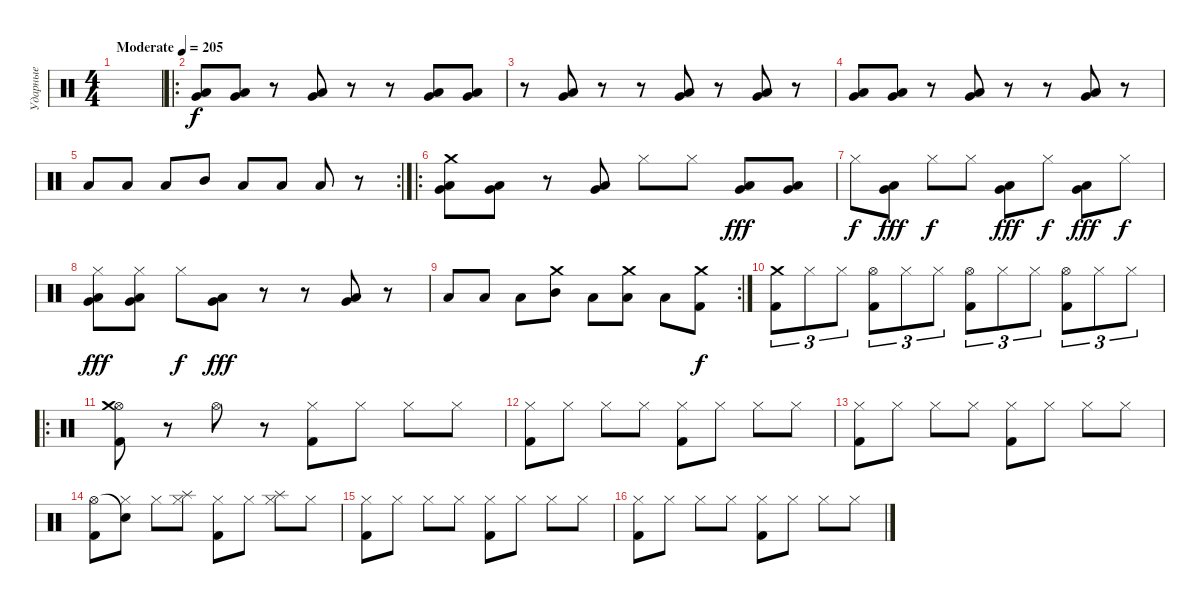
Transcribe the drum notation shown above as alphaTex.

\track ("Ударные" "Ударные") {instrument percussion}
\staff {score}
\articulation defaults
\ts (4 4)
\tempo (205 "Moderate")
\clef neutral
\ks c
|
\ro
("Low Floor Tom (hit)" "Very Low Tom (hit)").8 ("Low Floor Tom (hit)" "Very Low Tom (hit)").8 r.8 ("Low Floor Tom (hit)" "Very Low Tom (hit)").8 r.8 r.8 ("Low Floor Tom (hit)" "Very Low Tom (hit)").8 ("Low Floor Tom (hit)" "Very Low Tom (hit)").8 |
r.8 ("Low Floor Tom (hit)" "Very Low Tom (hit)").8 r.8 r.8 ("Low Floor Tom (hit)" "Very Low Tom (hit)").8 r.8 ("Low Floor Tom (hit)" "Very Low Tom (hit)").8 r.8 |
("Low Floor Tom (hit)" "Very Low Tom (hit)").8 ("Low Floor Tom (hit)" "Very Low Tom (hit)").8 r.8 ("Low Floor Tom (hit)" "Very Low Tom (hit)").8 r.8 r.8 ("Low Floor Tom (hit)" "Very Low Tom (hit)").8 r.8 |
\rc 2 "Low Tom (hit)".8 "Low Tom (hit)".8 "Low Tom (hit)".8 "Mid Tom (hit)".8 "Low Tom (hit)".8 "Low Tom (hit)".8 "Low Tom (hit)".8
r.8 |
\ro
("Low Floor Tom (hit)" "Very Low Tom (hit)" "Crash medium (hit)").8 ("Low Floor Tom (hit)" "Very Low Tom (hit)").8 r.8 ("Low Floor Tom (hit)" "Very Low Tom (hit)").8 "Hi-Hat (closed)".8{dy f} "Hi-Hat (closed)".8 ("Low Floor Tom (hit)" "Very Low Tom (hit)").8{dy fff} ("Low Floor Tom (hit)" "Very Low Tom (hit)").8 |
"Hi-Hat (closed)".8{dy f} ("Low Floor Tom (hit)" "Very Low Tom (hit)").8{dy fff} "Hi-Hat (closed)".8{dy f} "Hi-Hat (closed)".8 ("Low Floor Tom (hit)" "Very Low Tom (hit)").8{dy fff} "Hi-Hat (closed)".8{dy f} ("Low Floor Tom (hit)" "Very Low Tom (hit)").8{dy fff} "Hi-Hat (closed)".8{dy f} |
("Low Floor Tom (hit)" "Very Low Tom (hit)" "Hi-Hat (closed)").8{dy fff} ("Low Floor Tom (hit)" "Very Low Tom (hit)" "Hi-Hat (closed)").8 "Hi-Hat (closed)".8{dy f} ("Low Floor Tom (hit)" "Very Low Tom (hit)").8{dy fff} r.8 r.8 ("Low Floor Tom (hit)" "Very Low Tom (hit)").8 r.8 |
\rc 2 "Low Tom (hit)".8 "Low Tom (hit)".8 "Low Tom (hit)".8
("Crash medium (hit)" "Mid Tom (hit)").8 "Low Tom (hit)".8 ("Crash medium (hit)" "Low Tom (hit)").8 "Low Tom (hit)".8 ("Crash medium (hit)" "Kick (hit) 2").8{dy f} |
("Crash medium (hit)" "Kick (hit) 2").8{tu (3 2)} "Hi-Hat (closed)".8{tu (3 2)} "Hi-Hat (closed)".8{tu (3 2)} ("Hi-Hat (open)" "Kick (hit) 2").8{tu (3 2)} "Hi-Hat (closed)".8{tu (3 2)} "Hi-Hat (closed)".8{tu (3 2)} ("Hi-Hat (open)" "Kick (hit) 2").8{tu (3 2)} "Hi-Hat (closed)".8{tu (3 2)} "Hi-Hat (closed)".8{tu (3 2)} ("Hi-Hat (open)" "Kick (hit) 2").8{tu (3 2)} "Hi-Hat (closed)".8{tu (3 2)} "Hi-Hat (closed)".8{tu (3 2)} |
\ro
("Hi-Hat (open)" "Crash medium (hit)" "Kick (hit) 2").8 r.8 "Hi-Hat (open)".8 r.8 ("Hi-Hat (closed)" "Kick (hit) 2").8 "Hi-Hat (closed)".8 "Hi-Hat (closed)".8 "Hi-Hat (closed)".8 |
("Hi-Hat (closed)" "Kick (hit) 2").8 "Hi-Hat (closed)".8 "Hi-Hat (closed)".8 "Hi-Hat (closed)".8 ("Hi-Hat (closed)" "Kick (hit) 2").8 "Hi-Hat (closed)".8 "Hi-Hat (closed)".8 "Hi-Hat (closed)".8 |
("Hi-Hat (closed)" "Kick (hit) 2").8 "Hi-Hat (closed)".8 "Hi-Hat (closed)".8 "Hi-Hat (closed)".8 ("Hi-Hat (closed)" "Kick (hit) 2").8 "Hi-Hat (closed)".8 "Hi-Hat (closed)".8 "Hi-Hat (closed)".8 |
("Hi-Hat (open)" "Kick (hit) 2").8 ("Snare (hit)"{t} "Hi-Hat (closed)").8 "Hi-Hat (closed)".8 ("Splash (hit)" "Hi-Hat (closed)").8 ("Hi-Hat (closed)" "Kick (hit) 2").8 "Hi-Hat (closed)".8 ("Splash (hit)" "Hi-Hat (closed)").8 "Hi-Hat (closed)".8 |
("Hi-Hat (closed)" "Kick (hit) 2").8 "Hi-Hat (closed)".8 "Hi-Hat (closed)".8 "Hi-Hat (closed)".8 ("Hi-Hat (closed)" "Kick (hit) 2").8 "Hi-Hat (closed)".8 "Hi-Hat (closed)".8 "Hi-Hat (closed)".8 |
("Hi-Hat (closed)" "Kick (hit) 2").8 "Hi-Hat (closed)".8 "Hi-Hat (closed)".8 "Hi-Hat (closed)".8 ("Hi-Hat (closed)" "Kick (hit) 2").8 "Hi-Hat (closed)".8 "Hi-Hat (closed)".8 "Hi-Hat (closed)".8
